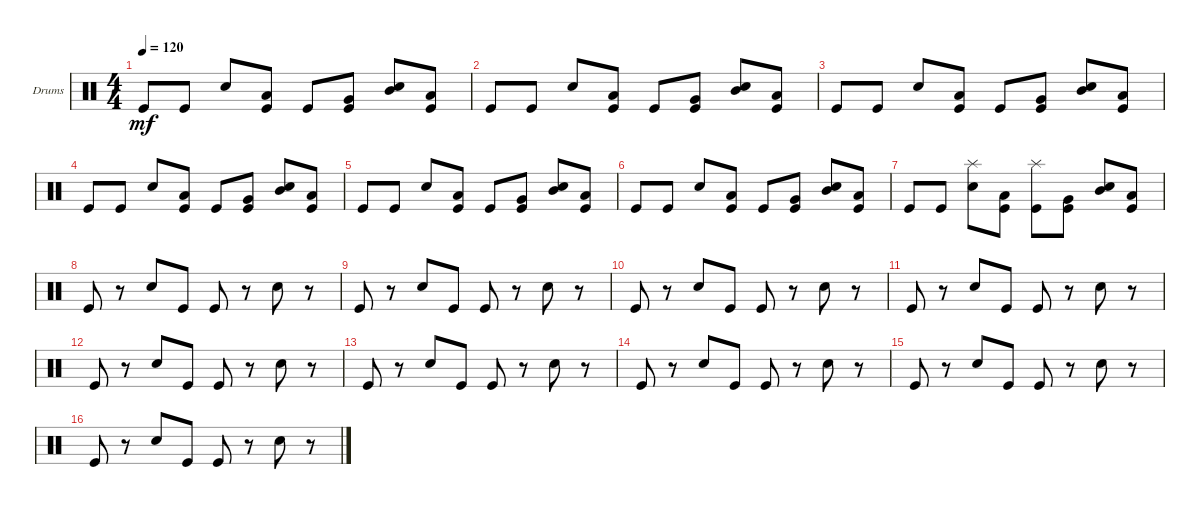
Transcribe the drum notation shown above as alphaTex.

\defaultSystemsLayout 4
\bracketExtendMode groupsimilarinstruments
\firstSystemTrackNameOrientation horizontal
\otherSystemsTrackNameOrientation horizontal
\track ("Drumkit" "Drums") {instrument percussion}
\staff {score}
\articulation defaults
\ts (4 4)
\tempo 120
\clef neutral
\ks c "Kick (hit)".8{dy mf} "Kick (hit)".8 "Snare (hit) 2".8
("Kick (hit)" "Low Tom (hit)").8 "Kick (hit)".8 ("Kick (hit)" "Very Low Tom (hit)").8 ("Snare (hit) 2" "Mid Tom (hit)").8 ("Low Tom (hit)" "Kick (hit)").8 |
"Kick (hit)".8 "Kick (hit)".8 "Snare (hit) 2".8 ("Kick (hit)" "Low Tom (hit)").8 "Kick (hit)".8 ("Kick (hit)" "Very Low Tom (hit)").8 ("Snare (hit) 2" "Mid Tom (hit)").8 ("Low Tom (hit)" "Kick (hit)").8 |
"Kick (hit)".8 "Kick (hit)".8 "Snare (hit) 2".8 ("Kick (hit)" "Low Tom (hit)").8 "Kick (hit)".8 ("Kick (hit)" "Very Low Tom (hit)").8 ("Snare (hit) 2" "Mid Tom (hit)").8 ("Low Tom (hit)" "Kick (hit)").8 |
"Kick (hit)".8 "Kick (hit)".8 "Snare (hit) 2".8 ("Kick (hit)" "Low Tom (hit)").8 "Kick (hit)".8 ("Kick (hit)" "Very Low Tom (hit)").8 ("Snare (hit) 2" "Mid Tom (hit)").8 ("Low Tom (hit)" "Kick (hit)").8 |
"Kick (hit)".8 "Kick (hit)".8 "Snare (hit) 2".8 ("Kick (hit)" "Low Tom (hit)").8 "Kick (hit)".8 ("Kick (hit)" "Very Low Tom (hit)").8 ("Snare (hit) 2" "Mid Tom (hit)").8 ("Low Tom (hit)" "Kick (hit)").8 |
"Kick (hit)".8 "Kick (hit)".8 "Snare (hit) 2".8 ("Kick (hit)" "Low Tom (hit)").8 "Kick (hit)".8 ("Kick (hit)" "Very Low Tom (hit)").8 ("Snare (hit) 2" "Mid Tom (hit)").8 ("Low Tom (hit)" "Kick (hit)").8 |
"Kick (hit)".8 "Kick (hit)".8 ("Snare (hit) 2" "Splash (hit)").8 ("Kick (hit)" "Low Tom (hit)").8 ("Kick (hit)" "Splash (hit)").8 ("Kick (hit)" "Very Low Tom (hit)").8 ("Snare (hit) 2" "Mid Tom (hit)").8 ("Low Tom (hit)" "Kick (hit)").8 |
"Kick (hit)".8 r.8 "Snare (hit) 2".8 "Kick (hit)".8 "Kick (hit)".8 r.8 "Snare (hit) 2".8 r.8 |
"Kick (hit)".8 r.8 "Snare (hit) 2".8 "Kick (hit)".8 "Kick (hit)".8 r.8 "Snare (hit) 2".8 r.8 |
"Kick (hit)".8 r.8 "Snare (hit) 2".8 "Kick (hit)".8 "Kick (hit)".8 r.8 "Snare (hit) 2".8 r.8 |
"Kick (hit)".8 r.8 "Snare (hit) 2".8 "Kick (hit)".8 "Kick (hit)".8 r.8 "Snare (hit) 2".8 r.8 |
"Kick (hit)".8 r.8 "Snare (hit) 2".8 "Kick (hit)".8 "Kick (hit)".8 r.8 "Snare (hit) 2".8 r.8 |
"Kick (hit)".8 r.8 "Snare (hit) 2".8 "Kick (hit)".8 "Kick (hit)".8 r.8 "Snare (hit) 2".8 r.8 |
"Kick (hit)".8 r.8 "Snare (hit) 2".8 "Kick (hit)".8 "Kick (hit)".8 r.8 "Snare (hit) 2".8 r.8 |
"Kick (hit)".8 r.8 "Snare (hit) 2".8 "Kick (hit)".8 "Kick (hit)".8 r.8 "Snare (hit) 2".8 r.8 |
"Kick (hit)".8 r.8 "Snare (hit) 2".8 "Kick (hit)".8 "Kick (hit)".8 r.8 "Snare (hit) 2".8 r.8
